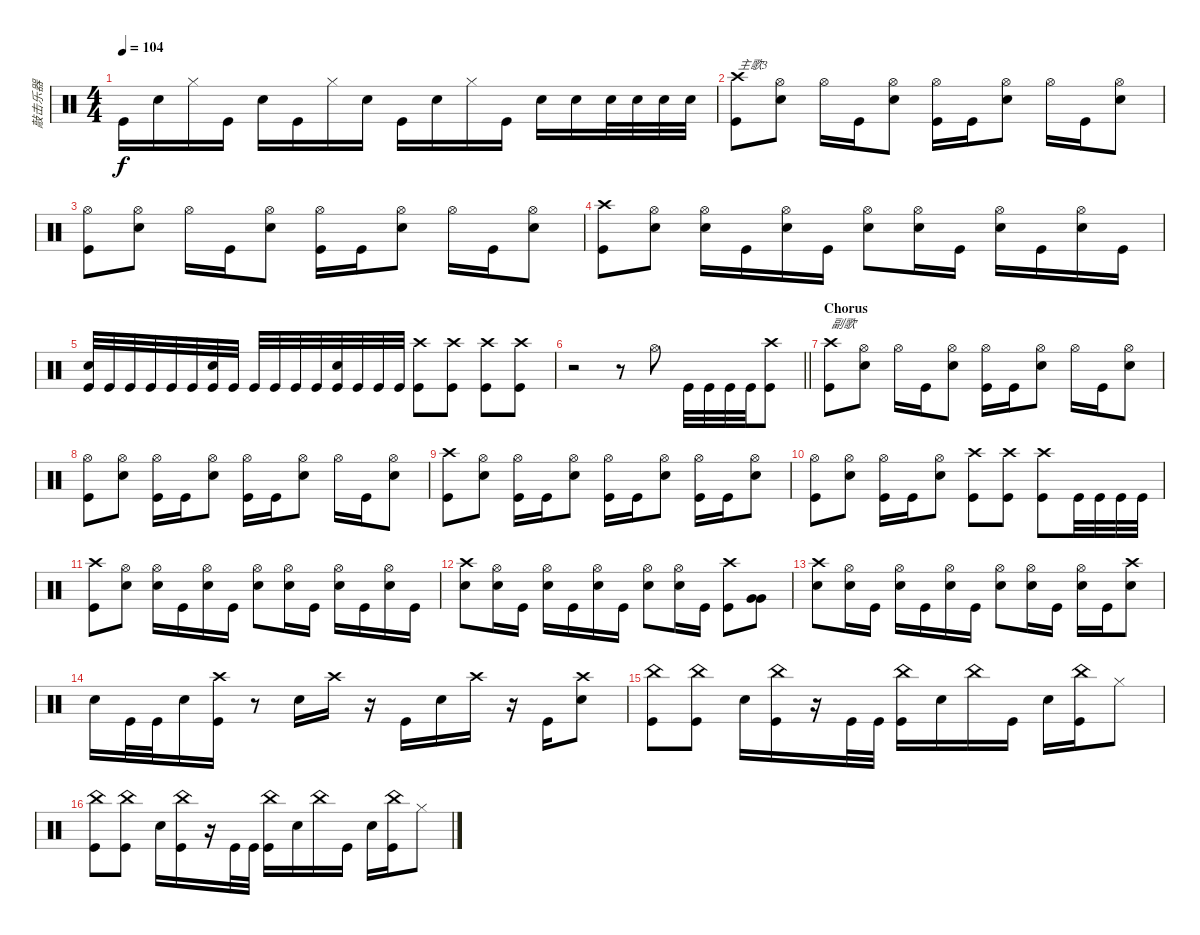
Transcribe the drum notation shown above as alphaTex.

\track ("敲击乐器" "敲击乐器") {instrument percussion}
\staff {score}
\articulation defaults
\ts (4 4)
\tempo 104
\clef neutral
\ks c "Kick (hit)".16{dy f} "Snare (hit) 2".16 "Hi-Hat (closed)".16 "Kick (hit)".16 "Snare (hit) 2".16 "Kick (hit)".16 "Hi-Hat (closed)".16 "Snare (hit) 2".16 "Kick (hit)".16 "Snare (hit) 2".16 "Hi-Hat (closed)".16 "Kick (hit)".16 "Snare (hit) 2".16 "Snare (hit) 2".16 "Snare (hit) 2".32 "Snare (hit) 2".32 "Snare (hit) 2".32 "Snare (hit) 2".32
|
("Kick (hit)" "Crash high (hit)").8{txt "主歌3"} ("Snare (hit) 2" "Hi-Hat (open)").8 "Hi-Hat (open)".16 "Kick (hit)".16 ("Snare (hit) 2" "Hi-Hat (open)").8 ("Kick (hit)" "Hi-Hat (open)").16 "Kick (hit)".16 ("Snare (hit) 2" "Hi-Hat (open)").8 "Hi-Hat (open)".16 "Kick (hit)".16 ("Snare (hit) 2" "Hi-Hat (open)").8 |
("Kick (hit)" "Hi-Hat (open)").8 ("Snare (hit) 2" "Hi-Hat (open)").8 "Hi-Hat (open)".16 "Kick (hit)".16 ("Snare (hit) 2" "Hi-Hat (open)").8 ("Kick (hit)" "Hi-Hat (open)").16 "Kick (hit)".16 ("Snare (hit) 2" "Hi-Hat (open)").8 "Hi-Hat (open)".16 "Kick (hit)".16 ("Snare (hit) 2" "Hi-Hat (open)").8 |
("Crash high (hit)" "Kick (hit)").8 ("Snare (hit) 2" "Hi-Hat (open)").8 ("Snare (hit) 2" "Hi-Hat (open)").16 "Kick (hit)".16 ("Snare (hit) 2" "Hi-Hat (open)").16 "Kick (hit)".16 ("Snare (hit) 2" "Hi-Hat (open)").8 ("Snare (hit) 2" "Hi-Hat (open)").16 "Kick (hit)".16 ("Snare (hit) 2" "Hi-Hat (open)").16 "Kick (hit)".16 ("Snare (hit) 2" "Hi-Hat (open)").16 "Kick (hit)".16 |
("Snare (hit) 2" "Kick (hit)").32 "Kick (hit)".32 "Kick (hit)".32 "Kick (hit)".32 "Kick (hit)".32 "Kick (hit)".32 ("Kick (hit)" "Snare (hit) 2").32 "Kick (hit)".32 "Kick (hit)".32 "Kick (hit)".32 "Kick (hit)".32 "Kick (hit)".32 ("Snare (hit) 2" "Kick (hit)").32 "Kick (hit)".32 "Kick (hit)".32 "Kick (hit)".32 ("Crash high (hit)" "Kick (hit)").8 ("Crash high (hit)" "Kick (hit)").8 ("Crash high (hit)" "Kick (hit)").8 ("Crash high (hit)" "Kick (hit)").8 |
\barLineRight lightlight
r.2 r.8 "Hi-Hat (open)".8 "Kick (hit)".32 "Kick (hit)".32 "Kick (hit)".32 "Kick (hit)".32 ("Kick (hit)" "Crash high (hit)").8 |
\section ("" "Chorus")
("Crash high (hit)" "Kick (hit)").8{txt "副歌"} ("Snare (hit) 2" "Hi-Hat (open)").8 "Hi-Hat (open)".16 "Kick (hit)".16 ("Snare (hit) 2" "Hi-Hat (open)").8 ("Kick (hit)" "Hi-Hat (open)").16 "Kick (hit)".16 ("Snare (hit) 2" "Hi-Hat (open)").8 "Hi-Hat (open)".16 "Kick (hit)".16 ("Snare (hit) 2" "Hi-Hat (open)").8 |
("Kick (hit)" "Hi-Hat (open)").8 ("Snare (hit) 2" "Hi-Hat (open)").8 ("Hi-Hat (open)" "Kick (hit)").16 "Kick (hit)".16 ("Snare (hit) 2" "Hi-Hat (open)").8 ("Kick (hit)" "Hi-Hat (open)").16 "Kick (hit)".16 ("Snare (hit) 2" "Hi-Hat (open)").8 "Hi-Hat (open)".16 "Kick (hit)".16 ("Snare (hit) 2" "Hi-Hat (open)").8 |
("Crash high (hit)" "Kick (hit)").8 ("Snare (hit) 2" "Hi-Hat (open)").8 ("Hi-Hat (open)" "Kick (hit)").16 "Kick (hit)".16 ("Snare (hit) 2" "Hi-Hat (open)").8 ("Kick (hit)" "Hi-Hat (open)").16 "Kick (hit)".16 ("Snare (hit) 2" "Hi-Hat (open)").8 ("Hi-Hat (open)" "Kick (hit)").16 "Kick (hit)".16 ("Snare (hit) 2" "Hi-Hat (open)").8 |
("Kick (hit)" "Hi-Hat (open)").8 ("Snare (hit) 2" "Hi-Hat (open)").8 ("Hi-Hat (open)" "Kick (hit)").16 "Kick (hit)".16 ("Snare (hit) 2" "Hi-Hat (open)").8 ("Kick (hit)" "Crash high (hit)").8 ("Kick (hit)" "Crash high (hit)").8 ("Kick (hit)" "Crash high (hit)").8 "Kick (hit)".32 "Kick (hit)".32 "Kick (hit)".32 "Kick (hit)".32 |
("Crash high (hit)" "Kick (hit)").8 ("Snare (hit) 2" "Hi-Hat (open)").8 ("Snare (hit) 2" "Hi-Hat (open)").16 "Kick (hit)".16 ("Snare (hit) 2" "Hi-Hat (open)").16 "Kick (hit)".16 ("Snare (hit) 2" "Hi-Hat (open)").8 ("Snare (hit) 2" "Hi-Hat (open)").16 "Kick (hit)".16 ("Snare (hit) 2" "Hi-Hat (open)").16 "Kick (hit)".16 ("Snare (hit) 2" "Hi-Hat (open)").16 "Kick (hit)".16 |
("Snare (hit) 2" "Crash high (hit)").8 ("Snare (hit) 2" "Hi-Hat (open)").16 "Kick (hit)".16 ("Snare (hit) 2" "Hi-Hat (open)").16 "Kick (hit)".16 ("Snare (hit) 2" "Hi-Hat (open)").16 "Kick (hit)".16 ("Snare (hit) 2" "Hi-Hat (open)").8 ("Snare (hit) 2" "Hi-Hat (open)").16 "Kick (hit)".16 ("Crash high (hit)" "Kick (hit)").8 ("Very Low Tom (hit)" "Very Low Tom (hit)").8 |
("Snare (hit) 2" "Crash high (hit)").8 ("Snare (hit) 2" "Hi-Hat (open)").16 "Kick (hit)".16 ("Snare (hit) 2" "Hi-Hat (open)").16 "Kick (hit)".16 ("Snare (hit) 2" "Hi-Hat (open)").16 "Kick (hit)".16 ("Snare (hit) 2" "Hi-Hat (open)").8 ("Snare (hit) 2" "Hi-Hat (open)").16 "Kick (hit)".16 ("Snare (hit) 2" "Hi-Hat (open)").16 "Kick (hit)".16 ("Snare (hit) 2" "Crash high (hit)").8 |
"Snare (hit) 2".16 "Kick (hit)".32 "Kick (hit)".32 "Snare (hit) 2".16 ("Kick (hit)" "Crash high (hit)").16 r.8 "Snare (hit) 2".16 "Crash high (hit)".16 r.16 "Kick (hit)".16 "Snare (hit) 2".16 "Crash high (hit)".16 r.16 "Kick (hit)".16 ("Snare (hit) 2" "Crash high (hit)").8 |
("China (hit)" "Kick (hit)").8 ("Kick (hit)" "China (hit)").8 "Snare (hit) 2".16 ("Kick (hit)" "China (hit)").16 r.16 "Kick (hit)".32 "Kick (hit)".32 ("Kick (hit)" "China (hit)").16 "Snare (hit) 2".16 "China (hit)".16 "Kick (hit)".16 "Snare (hit) 2".16 ("Kick (hit)" "China (hit)").16 "Hi-Hat (closed)".8 |
("Kick (hit)" "China (hit)").8 ("Kick (hit)" "China (hit)").8 "Snare (hit) 2".16 ("Kick (hit)" "China (hit)").16 r.16 "Kick (hit)".32 "Kick (hit)".32 ("Kick (hit)" "China (hit)").16 "Snare (hit) 2".16 "China (hit)".16 "Kick (hit)".16 "Snare (hit) 2".16 ("Kick (hit)" "China (hit)").16 "Hi-Hat (closed)".8
